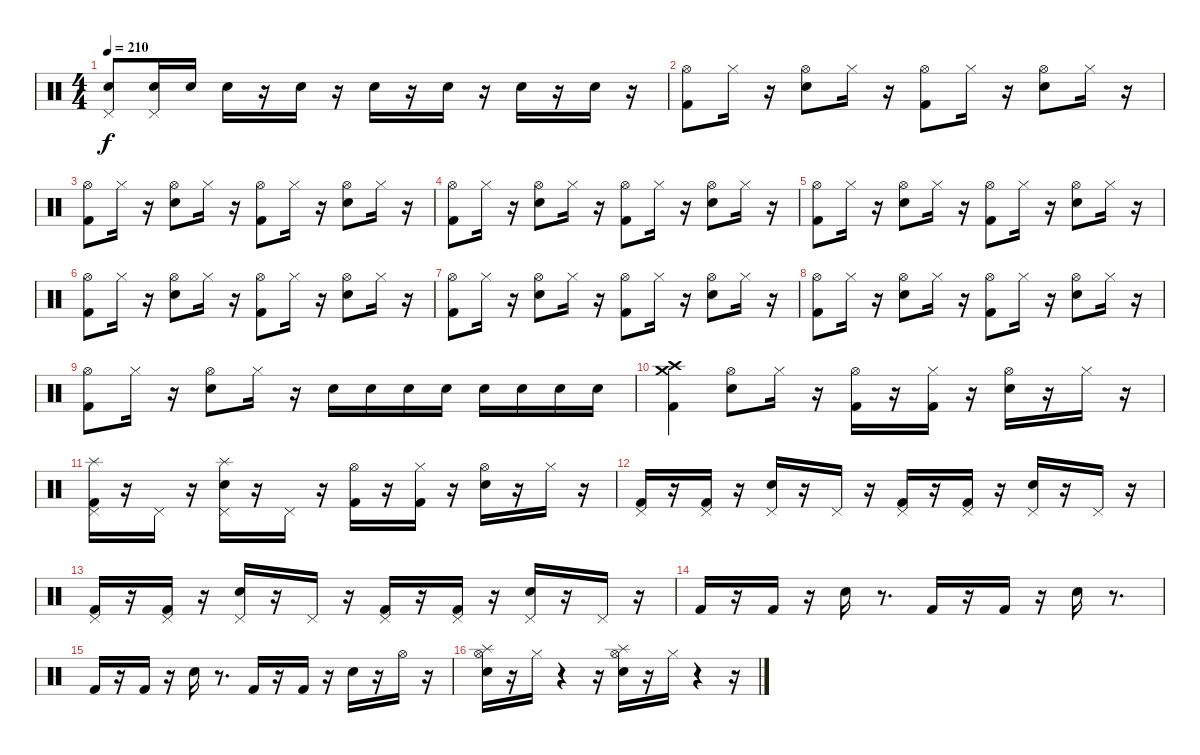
\track "" {instrument percussion}
\staff {score}
\articulation defaults
\ts (4 4)
\tempo 210
\clef neutral
\ks c
("Pedal Hi-Hat (hit)" "Snare (hit) 2").8{dy f} ("Pedal Hi-Hat (hit)" "Snare (hit) 2").16 "Snare (hit) 2".16 "Snare (hit) 2".16 r.16 "Snare (hit) 2".16 r.16 "Snare (hit) 2".16 r.16 "Snare (hit) 2".16 r.16 "Snare (hit) 2".16 r.16 "Snare (hit) 2".16 r.16 |
("Hi-Hat (open)" "Kick (hit) 2").8 "Hi-Hat (closed)".16 r.16 ("Hi-Hat (open)" "Snare (hit) 2").8 "Hi-Hat (closed)".16 r.16 ("Hi-Hat (open)" "Kick (hit) 2").8 "Hi-Hat (closed)".16 r.16 ("Hi-Hat (open)" "Snare (hit) 2").8 "Hi-Hat (closed)".16 r.16 |
("Hi-Hat (open)" "Kick (hit) 2").8 "Hi-Hat (closed)".16 r.16 ("Hi-Hat (open)" "Snare (hit) 2").8 "Hi-Hat (closed)".16 r.16 ("Hi-Hat (open)" "Kick (hit) 2").8 "Hi-Hat (closed)".16 r.16 ("Hi-Hat (open)" "Snare (hit) 2").8 "Hi-Hat (closed)".16 r.16 |
("Hi-Hat (open)" "Kick (hit) 2").8 "Hi-Hat (closed)".16 r.16 ("Hi-Hat (open)" "Snare (hit) 2").8 "Hi-Hat (closed)".16 r.16 ("Hi-Hat (open)" "Kick (hit) 2").8 "Hi-Hat (closed)".16 r.16 ("Hi-Hat (open)" "Snare (hit) 2").8 "Hi-Hat (closed)".16 r.16 |
("Hi-Hat (open)" "Kick (hit) 2").8 "Hi-Hat (closed)".16 r.16 ("Hi-Hat (open)" "Snare (hit) 2").8 "Hi-Hat (closed)".16 r.16 ("Hi-Hat (open)" "Kick (hit) 2").8 "Hi-Hat (closed)".16 r.16 ("Hi-Hat (open)" "Snare (hit) 2").8 "Hi-Hat (closed)".16 r.16 |
("Hi-Hat (open)" "Kick (hit) 2").8 "Hi-Hat (closed)".16 r.16 ("Hi-Hat (open)" "Snare (hit) 2").8 "Hi-Hat (closed)".16 r.16 ("Hi-Hat (open)" "Kick (hit) 2").8 "Hi-Hat (closed)".16 r.16 ("Hi-Hat (open)" "Snare (hit) 2").8 "Hi-Hat (closed)".16 r.16 |
("Hi-Hat (open)" "Kick (hit) 2").8 "Hi-Hat (closed)".16 r.16 ("Hi-Hat (open)" "Snare (hit) 2").8 "Hi-Hat (closed)".16 r.16 ("Hi-Hat (open)" "Kick (hit) 2").8 "Hi-Hat (closed)".16 r.16 ("Hi-Hat (open)" "Snare (hit) 2").8 "Hi-Hat (closed)".16 r.16 |
("Hi-Hat (open)" "Kick (hit) 2").8 "Hi-Hat (closed)".16 r.16 ("Hi-Hat (open)" "Snare (hit) 2").8 "Hi-Hat (closed)".16 r.16 ("Hi-Hat (open)" "Kick (hit) 2").8 "Hi-Hat (closed)".16 r.16 ("Hi-Hat (open)" "Snare (hit) 2").8 "Hi-Hat (closed)".16 r.16 |
("Hi-Hat (open)" "Kick (hit) 2").8 "Hi-Hat (closed)".16 r.16 ("Hi-Hat (open)" "Snare (hit) 2").8 "Hi-Hat (closed)".16 r.16 "Snare (hit) 2".16 "Snare (hit) 2".16 "Snare (hit) 2".16 "Snare (hit) 2".16 "Snare (hit) 2".16 "Snare (hit) 2".16 "Snare (hit) 2".16 "Snare (hit) 2".16 |
("Crash medium (hit)" "Crash high (hit)" "Kick (hit) 2").4 ("Hi-Hat (open)" "Snare (hit) 2").8 "Hi-Hat (closed)".16 r.16 ("Hi-Hat (open)" "Kick (hit) 2").16 r.16 ("Hi-Hat (closed)" "Kick (hit) 2").16 r.16 ("Hi-Hat (open)" "Snare (hit) 2").16 r.16 "Hi-Hat (closed)".16 r.16 |
("Splash (hit)" "Pedal Hi-Hat (hit)" "Kick (hit) 2").16 r.16 "Pedal Hi-Hat (hit)".16 r.16 ("Splash (hit)" "Pedal Hi-Hat (hit)" "Snare (hit) 2").16 r.16 "Pedal Hi-Hat (hit)".16 r.16 ("Hi-Hat (open)" "Kick (hit) 2").16 r.16 ("Hi-Hat (closed)" "Kick (hit) 2").16 r.16 ("Hi-Hat (open)" "Snare (hit) 2").16 r.16 "Hi-Hat (closed)".16 r.16 |
("Pedal Hi-Hat (hit)" "Kick (hit) 2").16 r.16 ("Pedal Hi-Hat (hit)" "Kick (hit) 2").16 r.16 ("Pedal Hi-Hat (hit)" "Snare (hit) 2").16 r.16 "Pedal Hi-Hat (hit)".16 r.16 ("Pedal Hi-Hat (hit)" "Kick (hit) 2").16 r.16 ("Pedal Hi-Hat (hit)" "Kick (hit) 2").16 r.16 ("Pedal Hi-Hat (hit)" "Snare (hit) 2").16 r.16 "Pedal Hi-Hat (hit)".16 r.16 |
("Pedal Hi-Hat (hit)" "Kick (hit) 2").16 r.16 ("Pedal Hi-Hat (hit)" "Kick (hit) 2").16 r.16 ("Pedal Hi-Hat (hit)" "Snare (hit) 2").16 r.16 "Pedal Hi-Hat (hit)".16 r.16 ("Pedal Hi-Hat (hit)" "Kick (hit) 2").16 r.16 ("Pedal Hi-Hat (hit)" "Kick (hit) 2").16 r.16 ("Pedal Hi-Hat (hit)" "Snare (hit) 2").16 r.16 "Pedal Hi-Hat (hit)".16 r.16 |
"Kick (hit) 2".16 r.16 "Kick (hit) 2".16 r.16 "Snare (hit) 2".16 r.8{d} "Kick (hit) 2".16 r.16 "Kick (hit) 2".16 r.16 "Snare (hit) 2".16 r.8{d} |
"Kick (hit) 2".16 r.16 "Kick (hit) 2".16 r.16 "Snare (hit) 2".16 r.8{d} "Kick (hit) 2".16 r.16 "Kick (hit) 2".16 r.16 "Snare (hit) 2".16 r.16 "Hi-Hat (open)".16 r.16 |
("Hi-Hat (open)" "Splash (hit)" "Electric Snare (hit)").16 r.16 "Hi-Hat (closed)".16 r.4 r.16 ("Hi-Hat (open)" "Splash (hit)" "Electric Snare (hit)").16 r.16 "Hi-Hat (closed)".16 r.4 r.16
